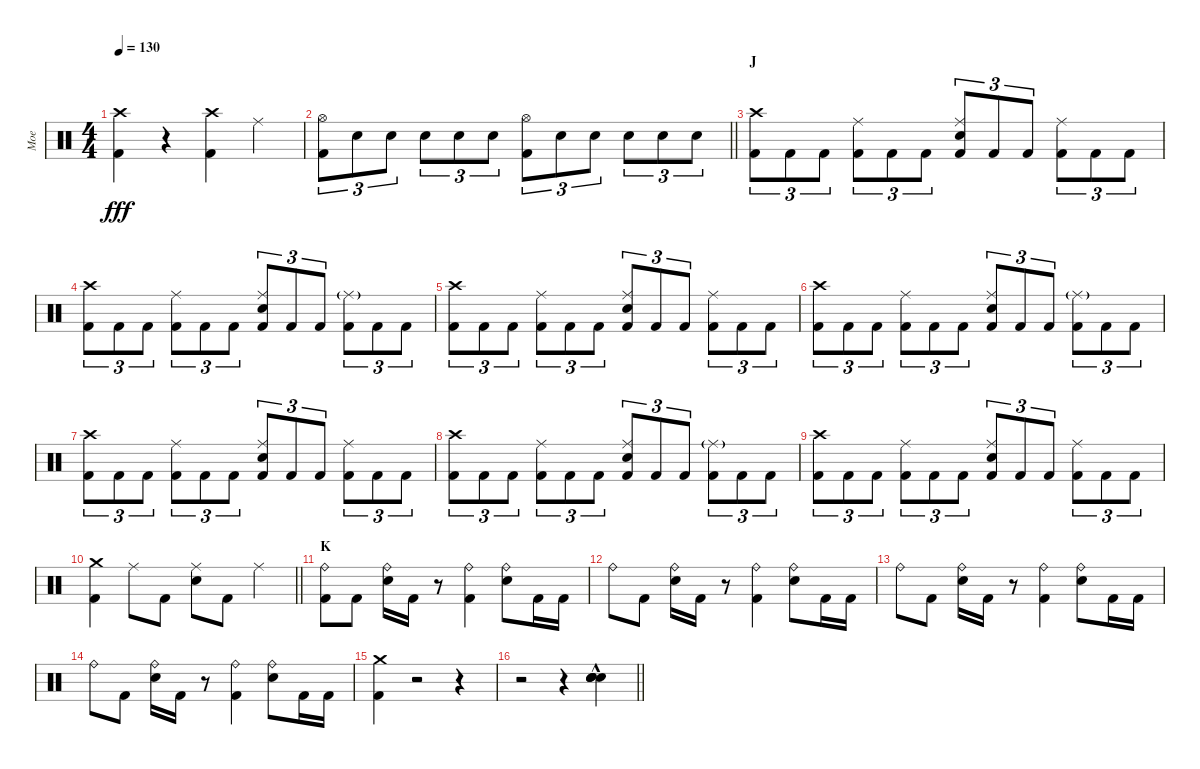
\track ("Moe" "Moe") {instrument percussion}
\staff {score}
\articulation defaults
\ts (4 4)
\tempo 130
\clef neutral
\ks c
("Crash high (hit)" "Kick (hit) 2").4{dy fff} r.4 ("Crash high (hit)" "Kick (hit) 2").4 "Ride (middle)".4 |
\barLineRight lightlight
("Hi-Hat (open)" "Kick (hit) 2").8{tu (3 2)} "Electric Snare (hit)".8{tu (3 2)} "Electric Snare (hit)".8{tu (3 2)} "Electric Snare (hit)".8{tu (3 2)} "Electric Snare (hit)".8{tu (3 2)} "Electric Snare (hit)".8{tu (3 2)} ("Hi-Hat (open)" "Kick (hit) 2").8{tu (3 2)} "Electric Snare (hit)".8{tu (3 2)} "Electric Snare (hit)".8{tu (3 2)} "Electric Snare (hit)".8{tu (3 2)} "Electric Snare (hit)".8{tu (3 2)} "Electric Snare (hit)".8{tu (3 2)} |
\section ("" "J")
("Crash high (hit)" "Kick (hit) 2").8{tu (3 2)} "Kick (hit) 2".8{tu (3 2)} "Kick (hit) 2".8{tu (3 2)} ("Ride (middle)" "Kick (hit) 2").8{tu (3 2)} "Kick (hit) 2".8{tu (3 2)} "Kick (hit) 2".8{tu (3 2)} ("Ride (middle)" "Electric Snare (hit)" "Kick (hit) 2").8{tu (3 2)} "Kick (hit) 2".8{tu (3 2)} "Kick (hit) 2".8{tu (3 2)} ("Ride (middle)" "Kick (hit) 2").8{tu (3 2)} "Kick (hit) 2".8{tu (3 2)} "Kick (hit) 2".8{tu (3 2)} |
("Crash high (hit)" "Kick (hit) 2").8{tu (3 2)} "Kick (hit) 2".8{tu (3 2)} "Kick (hit) 2".8{tu (3 2)} ("Ride (middle)" "Kick (hit) 2").8{tu (3 2)} "Kick (hit) 2".8{tu (3 2)} "Kick (hit) 2".8{tu (3 2)} ("Ride (middle)" "Electric Snare (hit)" "Kick (hit) 2").8{tu (3 2)} "Kick (hit) 2".8{tu (3 2)} "Kick (hit) 2".8{tu (3 2)} ("Ride (middle)"{g} "Kick (hit) 2").8{tu (3 2)} "Kick (hit) 2".8{tu (3 2)} "Kick (hit) 2".8{tu (3 2)} |
("Crash high (hit)" "Kick (hit) 2").8{tu (3 2)} "Kick (hit) 2".8{tu (3 2)} "Kick (hit) 2".8{tu (3 2)} ("Ride (middle)" "Kick (hit) 2").8{tu (3 2)} "Kick (hit) 2".8{tu (3 2)} "Kick (hit) 2".8{tu (3 2)} ("Ride (middle)" "Electric Snare (hit)" "Kick (hit) 2").8{tu (3 2)} "Kick (hit) 2".8{tu (3 2)} "Kick (hit) 2".8{tu (3 2)} ("Ride (middle)" "Kick (hit) 2").8{tu (3 2)} "Kick (hit) 2".8{tu (3 2)} "Kick (hit) 2".8{tu (3 2)} |
("Crash high (hit)" "Kick (hit) 2").8{tu (3 2)} "Kick (hit) 2".8{tu (3 2)} "Kick (hit) 2".8{tu (3 2)} ("Ride (middle)" "Kick (hit) 2").8{tu (3 2)} "Kick (hit) 2".8{tu (3 2)} "Kick (hit) 2".8{tu (3 2)} ("Ride (middle)" "Electric Snare (hit)" "Kick (hit) 2").8{tu (3 2)} "Kick (hit) 2".8{tu (3 2)} "Kick (hit) 2".8{tu (3 2)} ("Ride (middle)"{g} "Kick (hit) 2").8{tu (3 2)} "Kick (hit) 2".8{tu (3 2)} "Kick (hit) 2".8{tu (3 2)} |
("Crash high (hit)" "Kick (hit) 2").8{tu (3 2)} "Kick (hit) 2".8{tu (3 2)} "Kick (hit) 2".8{tu (3 2)} ("Ride (middle)" "Kick (hit) 2").8{tu (3 2)} "Kick (hit) 2".8{tu (3 2)} "Kick (hit) 2".8{tu (3 2)} ("Ride (middle)" "Electric Snare (hit)" "Kick (hit) 2").8{tu (3 2)} "Kick (hit) 2".8{tu (3 2)} "Kick (hit) 2".8{tu (3 2)} ("Ride (middle)" "Kick (hit) 2").8{tu (3 2)} "Kick (hit) 2".8{tu (3 2)} "Kick (hit) 2".8{tu (3 2)} |
("Crash high (hit)" "Kick (hit) 2").8{tu (3 2)} "Kick (hit) 2".8{tu (3 2)} "Kick (hit) 2".8{tu (3 2)} ("Ride (middle)" "Kick (hit) 2").8{tu (3 2)} "Kick (hit) 2".8{tu (3 2)} "Kick (hit) 2".8{tu (3 2)} ("Ride (middle)" "Electric Snare (hit)" "Kick (hit) 2").8{tu (3 2)} "Kick (hit) 2".8{tu (3 2)} "Kick (hit) 2".8{tu (3 2)} ("Ride (middle)"{g} "Kick (hit) 2").8{tu (3 2)} "Kick (hit) 2".8{tu (3 2)} "Kick (hit) 2".8{tu (3 2)} |
("Crash high (hit)" "Kick (hit) 2").8{tu (3 2)} "Kick (hit) 2".8{tu (3 2)} "Kick (hit) 2".8{tu (3 2)} ("Ride (middle)" "Kick (hit) 2").8{tu (3 2)} "Kick (hit) 2".8{tu (3 2)} "Kick (hit) 2".8{tu (3 2)} ("Ride (middle)" "Electric Snare (hit)" "Kick (hit) 2").8{tu (3 2)} "Kick (hit) 2".8{tu (3 2)} "Kick (hit) 2".8{tu (3 2)} ("Ride (middle)" "Kick (hit) 2").8{tu (3 2)} "Kick (hit) 2".8{tu (3 2)} "Kick (hit) 2".8{tu (3 2)} |
\barLineRight lightlight
("Crash medium (hit)" "Kick (hit) 2").4 "Ride (middle)".8 "Kick (hit) 2".8 ("Ride (middle)" "Electric Snare (hit)").8 "Kick (hit) 2".8 "Ride (middle)".4 |
\section ("" "K")
("Ride (bell)" "Kick (hit) 2").8 "Kick (hit) 2".8 ("Ride (bell)" "Electric Snare (hit)").16 "Kick (hit) 2".16 r.8 ("Ride (bell)" "Kick (hit) 2").4 ("Ride (bell)" "Electric Snare (hit)").8 "Kick (hit) 2".16 "Kick (hit) 2".16 |
"Ride (bell)".8 "Kick (hit) 2".8 ("Ride (bell)" "Electric Snare (hit)").16 "Kick (hit) 2".16 r.8 ("Ride (bell)" "Kick (hit) 2").4 ("Ride (bell)" "Electric Snare (hit)").8 "Kick (hit) 2".16 "Kick (hit) 2".16 |
"Ride (bell)".8 "Kick (hit) 2".8 ("Ride (bell)" "Electric Snare (hit)").16 "Kick (hit) 2".16 r.8 ("Ride (bell)" "Kick (hit) 2").4 ("Ride (bell)" "Electric Snare (hit)").8 "Kick (hit) 2".16 "Kick (hit) 2".16 |
"Ride (bell)".8 "Kick (hit) 2".8 ("Ride (bell)" "Electric Snare (hit)").16 "Kick (hit) 2".16 r.8 ("Ride (bell)" "Kick (hit) 2").4 ("Ride (bell)" "Electric Snare (hit)").8 "Kick (hit) 2".16 "Kick (hit) 2".16 |
("Crash medium (hit)" "Kick (hit) 2").4 r.2 r.4 |
\barLineRight lightlight
r.2 r.4 ("Snare (hit) 2" "Snare (hit) 2"{hac} "Electric Snare (hit)" "Electric Snare (hit)").4
